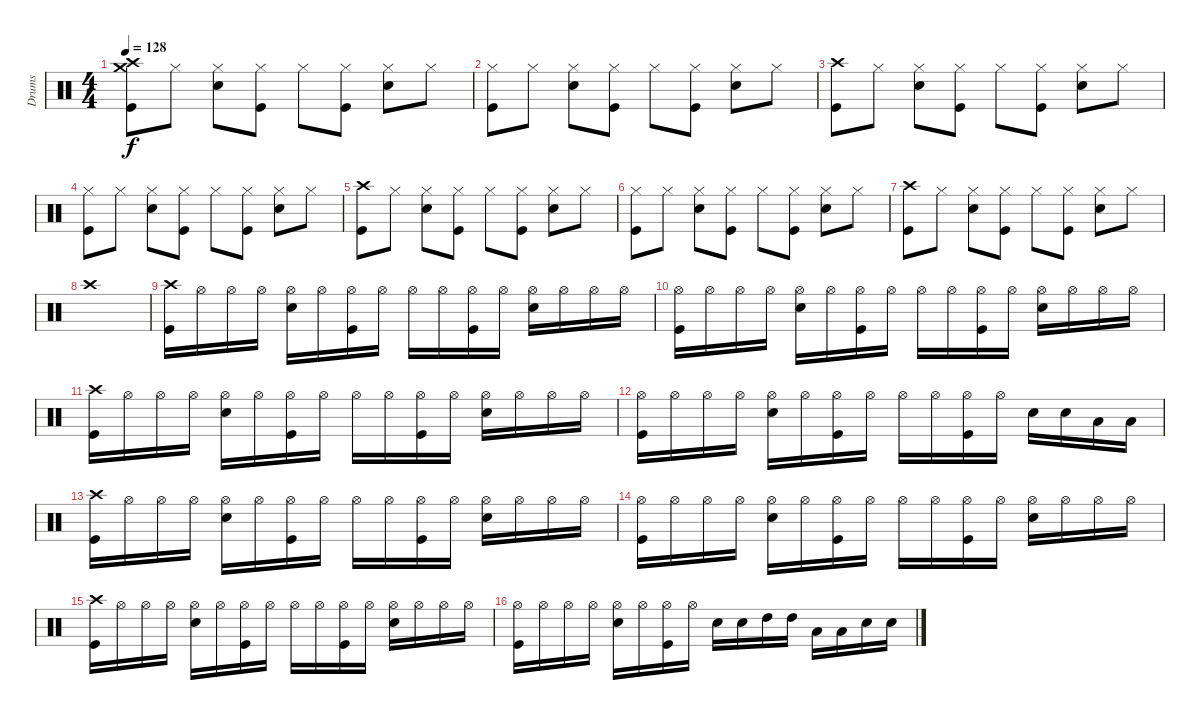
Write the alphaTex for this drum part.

\track ("Drums" "Drums") {instrument percussion}
\staff {score}
\articulation defaults
\ts (4 4)
\tempo 128
\clef neutral
\ks c
("Kick (hit)" "Crash high (hit)" "Crash medium (hit)").8{dy f} "Hi-Hat (closed)".8 ("Snare (hit) 2" "Hi-Hat (closed)").8 ("Kick (hit)" "Hi-Hat (closed)").8 "Hi-Hat (closed)".8 ("Kick (hit)" "Hi-Hat (closed)").8 ("Snare (hit) 2" "Hi-Hat (closed)").8 "Hi-Hat (closed)".8 |
("Kick (hit)" "Hi-Hat (closed)").8 "Hi-Hat (closed)".8 ("Snare (hit) 2" "Hi-Hat (closed)").8 ("Kick (hit)" "Hi-Hat (closed)").8 "Hi-Hat (closed)".8 ("Kick (hit)" "Hi-Hat (closed)").8 ("Snare (hit) 2" "Hi-Hat (closed)").8 "Hi-Hat (closed)".8 |
("Kick (hit)" "Crash high (hit)").8 "Hi-Hat (closed)".8 ("Snare (hit) 2" "Hi-Hat (closed)").8 ("Kick (hit)" "Hi-Hat (closed)").8 "Hi-Hat (closed)".8 ("Kick (hit)" "Hi-Hat (closed)").8 ("Snare (hit) 2" "Hi-Hat (closed)").8 "Hi-Hat (closed)".8 |
("Kick (hit)" "Hi-Hat (closed)").8 "Hi-Hat (closed)".8 ("Snare (hit) 2" "Hi-Hat (closed)").8 ("Kick (hit)" "Hi-Hat (closed)").8 "Hi-Hat (closed)".8 ("Kick (hit)" "Hi-Hat (closed)").8 ("Snare (hit) 2" "Hi-Hat (closed)").8 "Hi-Hat (closed)".8 |
("Kick (hit)" "Crash high (hit)").8 "Hi-Hat (closed)".8 ("Snare (hit) 2" "Hi-Hat (closed)").8 ("Kick (hit)" "Hi-Hat (closed)").8 "Hi-Hat (closed)".8 ("Kick (hit)" "Hi-Hat (closed)").8 ("Snare (hit) 2" "Hi-Hat (closed)").8 "Hi-Hat (closed)".8 |
("Kick (hit)" "Hi-Hat (closed)").8 "Hi-Hat (closed)".8 ("Snare (hit) 2" "Hi-Hat (closed)").8 ("Kick (hit)" "Hi-Hat (closed)").8 "Hi-Hat (closed)".8 ("Kick (hit)" "Hi-Hat (closed)").8 ("Snare (hit) 2" "Hi-Hat (closed)").8 "Hi-Hat (closed)".8 |
("Kick (hit)" "Crash high (hit)").8 "Hi-Hat (closed)".8 ("Snare (hit) 2" "Hi-Hat (closed)").8 ("Kick (hit)" "Hi-Hat (closed)").8 "Hi-Hat (closed)".8 ("Kick (hit)" "Hi-Hat (closed)").8 ("Snare (hit) 2" "Hi-Hat (closed)").8 "Hi-Hat (closed)".8 |
"Crash high (hit)".1 |
("Kick (hit)" "Crash high (hit)").16 "Hi-Hat (open)".16 "Hi-Hat (open)".16 "Hi-Hat (open)".16 ("Snare (hit) 2" "Hi-Hat (open)").16 "Hi-Hat (open)".16 ("Kick (hit)" "Hi-Hat (open)").16 "Hi-Hat (open)".16 "Hi-Hat (open)".16 "Hi-Hat (open)".16 ("Kick (hit)" "Hi-Hat (open)").16 "Hi-Hat (open)".16 ("Snare (hit) 2" "Hi-Hat (open)").16 "Hi-Hat (open)".16 "Hi-Hat (open)".16 "Hi-Hat (open)".16 |
("Kick (hit)" "Hi-Hat (open)").16 "Hi-Hat (open)".16 "Hi-Hat (open)".16 "Hi-Hat (open)".16 ("Snare (hit) 2" "Hi-Hat (open)").16 "Hi-Hat (open)".16 ("Kick (hit)" "Hi-Hat (open)").16 "Hi-Hat (open)".16 "Hi-Hat (open)".16 "Hi-Hat (open)".16 ("Kick (hit)" "Hi-Hat (open)").16 "Hi-Hat (open)".16 ("Snare (hit) 2" "Hi-Hat (open)").16 "Hi-Hat (open)".16 "Hi-Hat (open)".16 "Hi-Hat (open)".16 |
("Kick (hit)" "Crash high (hit)").16 "Hi-Hat (open)".16 "Hi-Hat (open)".16 "Hi-Hat (open)".16 ("Snare (hit) 2" "Hi-Hat (open)").16 "Hi-Hat (open)".16 ("Kick (hit)" "Hi-Hat (open)").16 "Hi-Hat (open)".16 "Hi-Hat (open)".16 "Hi-Hat (open)".16 ("Kick (hit)" "Hi-Hat (open)").16 "Hi-Hat (open)".16 ("Snare (hit) 2" "Hi-Hat (open)").16 "Hi-Hat (open)".16 "Hi-Hat (open)".16 "Hi-Hat (open)".16 |
("Kick (hit)" "Hi-Hat (open)").16 "Hi-Hat (open)".16 "Hi-Hat (open)".16 "Hi-Hat (open)".16 ("Snare (hit) 2" "Hi-Hat (open)").16 "Hi-Hat (open)".16 ("Kick (hit)" "Hi-Hat (open)").16 "Hi-Hat (open)".16 "Hi-Hat (open)".16 "Hi-Hat (open)".16 ("Kick (hit)" "Hi-Hat (open)").16 "Hi-Hat (open)".16 "Snare (hit) 2".16 "Electric Snare (hit)".16 "Low Tom (hit)".16 "Low Tom (hit)".16 |
("Kick (hit)" "Crash high (hit)").16 "Hi-Hat (open)".16 "Hi-Hat (open)".16 "Hi-Hat (open)".16 ("Snare (hit) 2" "Hi-Hat (open)").16 "Hi-Hat (open)".16 ("Kick (hit)" "Hi-Hat (open)").16 "Hi-Hat (open)".16 "Hi-Hat (open)".16 "Hi-Hat (open)".16 ("Kick (hit)" "Hi-Hat (open)").16 "Hi-Hat (open)".16 ("Snare (hit) 2" "Hi-Hat (open)").16 "Hi-Hat (open)".16 "Hi-Hat (open)".16 "Hi-Hat (open)".16 |
("Kick (hit)" "Hi-Hat (open)").16 "Hi-Hat (open)".16 "Hi-Hat (open)".16 "Hi-Hat (open)".16 ("Snare (hit) 2" "Hi-Hat (open)").16 "Hi-Hat (open)".16 ("Kick (hit)" "Hi-Hat (open)").16 "Hi-Hat (open)".16 "Hi-Hat (open)".16 "Hi-Hat (open)".16 ("Kick (hit)" "Hi-Hat (open)").16 "Hi-Hat (open)".16 ("Snare (hit) 2" "Hi-Hat (open)").16 "Hi-Hat (open)".16 "Hi-Hat (open)".16 "Hi-Hat (open)".16 |
("Kick (hit)" "Crash high (hit)").16 "Hi-Hat (open)".16 "Hi-Hat (open)".16 "Hi-Hat (open)".16 ("Snare (hit) 2" "Hi-Hat (open)").16 "Hi-Hat (open)".16 ("Kick (hit)" "Hi-Hat (open)").16 "Hi-Hat (open)".16 "Hi-Hat (open)".16 "Hi-Hat (open)".16 ("Kick (hit)" "Hi-Hat (open)").16 "Hi-Hat (open)".16 ("Snare (hit) 2" "Hi-Hat (open)").16 "Hi-Hat (open)".16 "Hi-Hat (open)".16 "Hi-Hat (open)".16 |
("Kick (hit)" "Hi-Hat (open)").16 "Hi-Hat (open)".16 "Hi-Hat (open)".16 "Hi-Hat (open)".16 ("Snare (hit) 2" "Hi-Hat (open)").16 "Hi-Hat (open)".16 ("Kick (hit)" "Hi-Hat (open)").16 "Hi-Hat (open)".16 "Snare (hit) 2".16 "Electric Snare (hit)".16 "High Tom (hit)".16 "High Tom (hit)".16 "Low Tom (hit)".16 "Low Tom (hit)".16 "Snare (hit) 2".16 "Electric Snare (hit)".16
